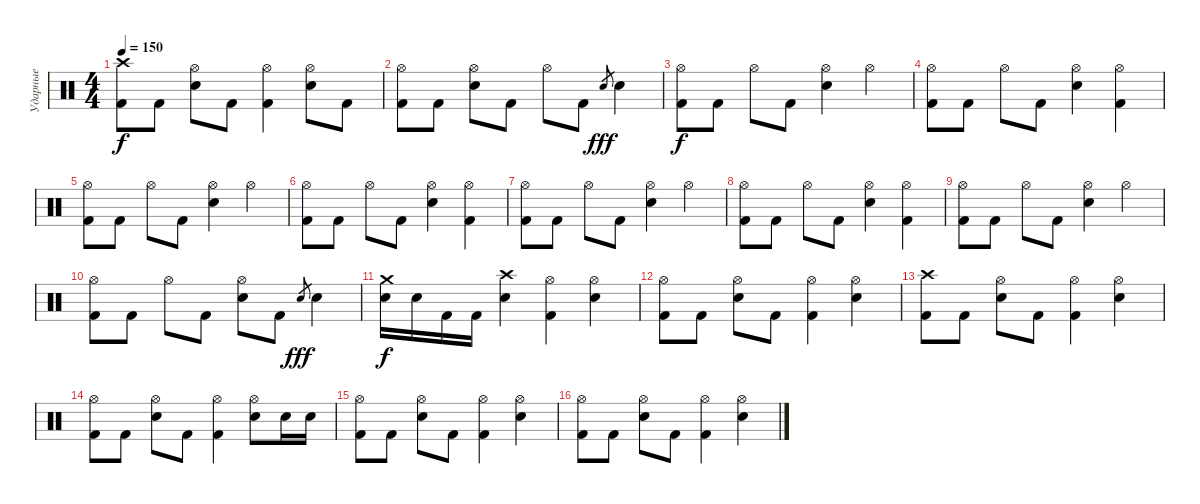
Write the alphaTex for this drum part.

\track ("Ударные" "Ударные") {instrument percussion}
\staff {score}
\articulation defaults
\ts (4 4)
\tempo 150
\clef neutral
\ks c
("Crash high (hit)" "Kick (hit) 2").8{dy f} "Kick (hit) 2".8 ("Hi-Hat (open)" "Electric Snare (hit)").8 "Kick (hit) 2".8 ("Hi-Hat (open)" "Kick (hit) 2").4 ("Hi-Hat (open)" "Electric Snare (hit)").8 "Kick (hit) 2".8 |
("Hi-Hat (open)" "Kick (hit) 2").8 "Kick (hit) 2".8 ("Hi-Hat (open)" "Electric Snare (hit)").8 "Kick (hit) 2".8 "Hi-Hat (open)".8 "Kick (hit) 2".8 "Electric Snare (hit)".8{gr dy fff} "Electric Snare (hit)".4 |
("Hi-Hat (open)" "Kick (hit) 2").8{dy f} "Kick (hit) 2".8 "Hi-Hat (open)".8 "Kick (hit) 2".8 ("Hi-Hat (open)" "Electric Snare (hit)").4 "Hi-Hat (open)".4 |
("Hi-Hat (open)" "Kick (hit) 2").8 "Kick (hit) 2".8 "Hi-Hat (open)".8 "Kick (hit) 2".8 ("Hi-Hat (open)" "Electric Snare (hit)").4 ("Hi-Hat (open)" "Kick (hit) 2").4 |
("Hi-Hat (open)" "Kick (hit) 2").8 "Kick (hit) 2".8 "Hi-Hat (open)".8 "Kick (hit) 2".8 ("Hi-Hat (open)" "Electric Snare (hit)").4 "Hi-Hat (open)".4 |
("Hi-Hat (open)" "Kick (hit) 2").8 "Kick (hit) 2".8 "Hi-Hat (open)".8 "Kick (hit) 2".8 ("Hi-Hat (open)" "Electric Snare (hit)").4 ("Hi-Hat (open)" "Kick (hit) 2").4 |
("Hi-Hat (open)" "Kick (hit) 2").8 "Kick (hit) 2".8 "Hi-Hat (open)".8 "Kick (hit) 2".8 ("Hi-Hat (open)" "Electric Snare (hit)").4 "Hi-Hat (open)".4 |
("Hi-Hat (open)" "Kick (hit) 2").8 "Kick (hit) 2".8 "Hi-Hat (open)".8 "Kick (hit) 2".8 ("Hi-Hat (open)" "Electric Snare (hit)").4 ("Hi-Hat (open)" "Kick (hit) 2").4 |
("Hi-Hat (open)" "Kick (hit) 2").8 "Kick (hit) 2".8 "Hi-Hat (open)".8 "Kick (hit) 2".8 ("Hi-Hat (open)" "Electric Snare (hit)").4 "Hi-Hat (open)".4 |
("Hi-Hat (open)" "Kick (hit) 2").8 "Kick (hit) 2".8 "Hi-Hat (open)".8 "Kick (hit) 2".8 ("Hi-Hat (open)" "Electric Snare (hit)").8 "Kick (hit) 2".8 "Electric Snare (hit)".8{gr dy fff} "Electric Snare (hit)".4 |
("Crash medium (hit)" "Electric Snare (hit)").16{dy f} "Electric Snare (hit)".16 "Kick (hit) 2".16 "Kick (hit) 2".16 ("Crash high (hit)" "Electric Snare (hit)").4 ("Hi-Hat (open)" "Kick (hit) 2").4 ("Hi-Hat (open)" "Electric Snare (hit)").4 |
("Hi-Hat (open)" "Kick (hit) 2").8 "Kick (hit) 2".8 ("Hi-Hat (open)" "Electric Snare (hit)").8 "Kick (hit) 2".8 ("Hi-Hat (open)" "Kick (hit) 2").4 ("Hi-Hat (open)" "Electric Snare (hit)").4 |
("Crash high (hit)" "Kick (hit) 2").8 "Kick (hit) 2".8 ("Hi-Hat (open)" "Electric Snare (hit)").8 "Kick (hit) 2".8 ("Hi-Hat (open)" "Kick (hit) 2").4 ("Hi-Hat (open)" "Electric Snare (hit)").4 |
("Hi-Hat (open)" "Kick (hit) 2").8 "Kick (hit) 2".8 ("Hi-Hat (open)" "Electric Snare (hit)").8 "Kick (hit) 2".8 ("Hi-Hat (open)" "Kick (hit) 2").4 ("Hi-Hat (open)" "Electric Snare (hit)").8 "Electric Snare (hit)".16 "Electric Snare (hit)".16 |
("Hi-Hat (open)" "Kick (hit) 2").8 "Kick (hit) 2".8 ("Hi-Hat (open)" "Electric Snare (hit)").8 "Kick (hit) 2".8 ("Hi-Hat (open)" "Kick (hit) 2").4 ("Hi-Hat (open)" "Electric Snare (hit)").4 |
("Hi-Hat (open)" "Kick (hit) 2").8 "Kick (hit) 2".8 ("Hi-Hat (open)" "Electric Snare (hit)").8 "Kick (hit) 2".8 ("Hi-Hat (open)" "Kick (hit) 2").4 ("Hi-Hat (open)" "Electric Snare (hit)").4
